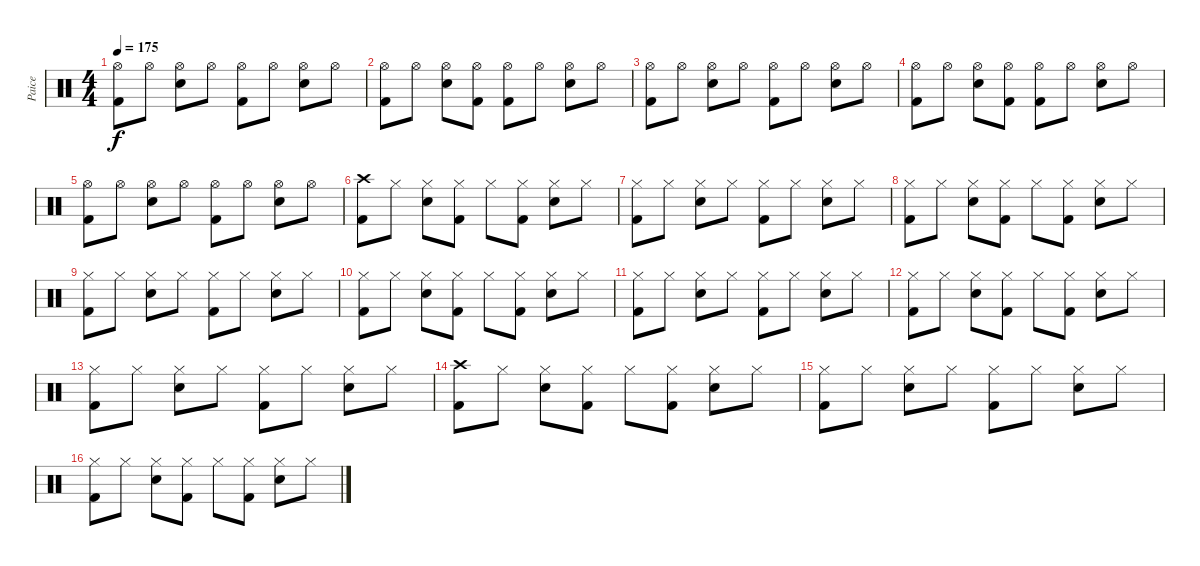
\track ("Paice" "Paice") {instrument percussion}
\staff {score}
\articulation defaults
\ts (4 4)
\tempo 175
\clef neutral
\ks c
("Hi-Hat (open)" "Kick (hit) 2").8{dy f} "Hi-Hat (open)".8 ("Hi-Hat (open)" "Electric Snare (hit)").8 "Hi-Hat (open)".8 ("Hi-Hat (open)" "Kick (hit) 2").8 "Hi-Hat (open)".8 ("Hi-Hat (open)" "Electric Snare (hit)").8 "Hi-Hat (open)".8 |
("Hi-Hat (open)" "Kick (hit) 2").8 "Hi-Hat (open)".8 ("Hi-Hat (open)" "Electric Snare (hit)").8 ("Hi-Hat (open)" "Kick (hit) 2").8 ("Hi-Hat (open)" "Kick (hit) 2").8 "Hi-Hat (open)".8 ("Hi-Hat (open)" "Electric Snare (hit)").8 "Hi-Hat (open)".8 |
("Hi-Hat (open)" "Kick (hit) 2").8 "Hi-Hat (open)".8 ("Hi-Hat (open)" "Electric Snare (hit)").8 "Hi-Hat (open)".8 ("Hi-Hat (open)" "Kick (hit) 2").8 "Hi-Hat (open)".8 ("Hi-Hat (open)" "Electric Snare (hit)").8 "Hi-Hat (open)".8 |
("Hi-Hat (open)" "Kick (hit) 2").8 "Hi-Hat (open)".8 ("Hi-Hat (open)" "Electric Snare (hit)").8 ("Hi-Hat (open)" "Kick (hit) 2").8 ("Hi-Hat (open)" "Kick (hit) 2").8 "Hi-Hat (open)".8 ("Hi-Hat (open)" "Electric Snare (hit)").8 "Hi-Hat (open)".8 |
("Hi-Hat (open)" "Kick (hit) 2").8 "Hi-Hat (open)".8 ("Hi-Hat (open)" "Electric Snare (hit)").8 "Hi-Hat (open)".8 ("Hi-Hat (open)" "Kick (hit) 2").8 "Hi-Hat (open)".8 ("Hi-Hat (open)" "Electric Snare (hit)").8 "Hi-Hat (open)".8 |
("Crash high (hit)" "Kick (hit) 2").8 "Hi-Hat (closed)".8 ("Hi-Hat (closed)" "Electric Snare (hit)").8 ("Hi-Hat (closed)" "Kick (hit) 2").8 "Hi-Hat (closed)".8 ("Hi-Hat (closed)" "Kick (hit) 2").8 ("Hi-Hat (closed)" "Electric Snare (hit)").8 "Hi-Hat (closed)".8 |
("Hi-Hat (closed)" "Kick (hit) 2").8 "Hi-Hat (closed)".8 ("Hi-Hat (closed)" "Electric Snare (hit)").8 "Hi-Hat (closed)".8 ("Hi-Hat (closed)" "Kick (hit) 2").8 "Hi-Hat (closed)".8 ("Hi-Hat (closed)" "Electric Snare (hit)").8 "Hi-Hat (closed)".8 |
("Hi-Hat (closed)" "Kick (hit) 2").8 "Hi-Hat (closed)".8 ("Hi-Hat (closed)" "Electric Snare (hit)").8 ("Hi-Hat (closed)" "Kick (hit) 2").8 "Hi-Hat (closed)".8 ("Hi-Hat (closed)" "Kick (hit) 2").8 ("Hi-Hat (closed)" "Electric Snare (hit)").8 "Hi-Hat (closed)".8 |
("Hi-Hat (closed)" "Kick (hit) 2").8 "Hi-Hat (closed)".8 ("Hi-Hat (closed)" "Electric Snare (hit)").8 "Hi-Hat (closed)".8 ("Hi-Hat (closed)" "Kick (hit) 2").8 "Hi-Hat (closed)".8 ("Hi-Hat (closed)" "Electric Snare (hit)").8 "Hi-Hat (closed)".8 |
("Hi-Hat (closed)" "Kick (hit) 2").8 "Hi-Hat (closed)".8 ("Hi-Hat (closed)" "Electric Snare (hit)").8 ("Hi-Hat (closed)" "Kick (hit) 2").8 "Hi-Hat (closed)".8 ("Hi-Hat (closed)" "Kick (hit) 2").8 ("Hi-Hat (closed)" "Electric Snare (hit)").8 "Hi-Hat (closed)".8 |
("Hi-Hat (closed)" "Kick (hit) 2").8 "Hi-Hat (closed)".8 ("Hi-Hat (closed)" "Electric Snare (hit)").8 "Hi-Hat (closed)".8 ("Hi-Hat (closed)" "Kick (hit) 2").8 "Hi-Hat (closed)".8 ("Hi-Hat (closed)" "Electric Snare (hit)").8 "Hi-Hat (closed)".8 |
("Hi-Hat (closed)" "Kick (hit) 2").8 "Hi-Hat (closed)".8 ("Hi-Hat (closed)" "Electric Snare (hit)").8 ("Hi-Hat (closed)" "Kick (hit) 2").8 "Hi-Hat (closed)".8 ("Hi-Hat (closed)" "Kick (hit) 2").8 ("Hi-Hat (closed)" "Electric Snare (hit)").8 "Hi-Hat (closed)".8 |
("Hi-Hat (closed)" "Kick (hit) 2").8 "Hi-Hat (closed)".8 ("Hi-Hat (closed)" "Electric Snare (hit)").8 "Hi-Hat (closed)".8 ("Hi-Hat (closed)" "Kick (hit) 2").8 "Hi-Hat (closed)".8 ("Hi-Hat (closed)" "Electric Snare (hit)").8 "Hi-Hat (closed)".8 |
("Crash high (hit)" "Kick (hit) 2").8 "Hi-Hat (closed)".8 ("Hi-Hat (closed)" "Electric Snare (hit)").8 ("Hi-Hat (closed)" "Kick (hit) 2").8 "Hi-Hat (closed)".8 ("Hi-Hat (closed)" "Kick (hit) 2").8 ("Hi-Hat (closed)" "Electric Snare (hit)").8 "Hi-Hat (closed)".8 |
("Hi-Hat (closed)" "Kick (hit) 2").8 "Hi-Hat (closed)".8 ("Hi-Hat (closed)" "Electric Snare (hit)").8 "Hi-Hat (closed)".8 ("Hi-Hat (closed)" "Kick (hit) 2").8 "Hi-Hat (closed)".8 ("Hi-Hat (closed)" "Electric Snare (hit)").8 "Hi-Hat (closed)".8 |
("Hi-Hat (closed)" "Kick (hit) 2").8 "Hi-Hat (closed)".8 ("Hi-Hat (closed)" "Electric Snare (hit)").8 ("Hi-Hat (closed)" "Kick (hit) 2").8 "Hi-Hat (closed)".8 ("Hi-Hat (closed)" "Kick (hit) 2").8 ("Hi-Hat (closed)" "Electric Snare (hit)").8 "Hi-Hat (closed)".8
